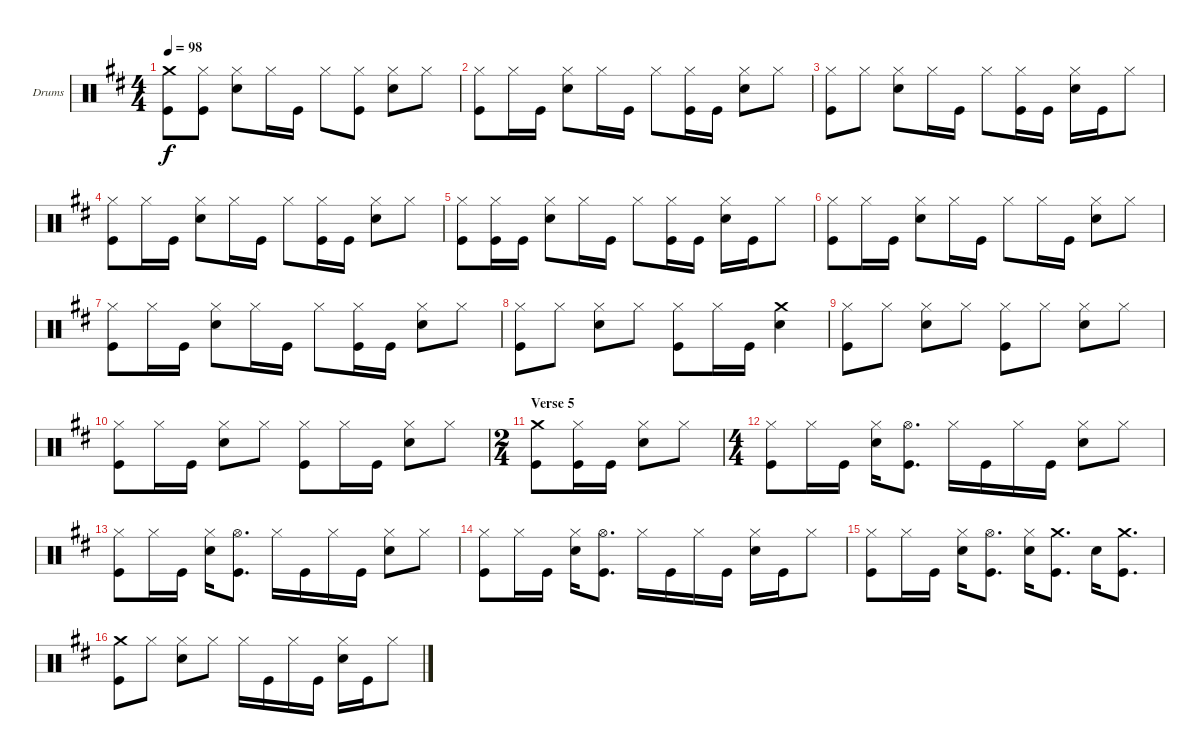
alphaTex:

\bracketExtendMode groupsimilarinstruments
\firstSystemTrackNameOrientation horizontal
\otherSystemsTrackNameOrientation horizontal
\track ("Drumkit" "Drums") {instrument percussion}
\staff {score}
\articulation defaults
\ts (4 4)
\tempo 98
\clef neutral
\ks d
("Crash medium (hit)" "Kick (hit)").8{dy f} ("Hi-Hat (closed)" "Kick (hit)").8 ("Hi-Hat (closed)" "Snare (hit) 2").8 "Hi-Hat (closed)".16 "Kick (hit)".16 "Hi-Hat (closed)".8 ("Hi-Hat (closed)" "Kick (hit)").8 ("Hi-Hat (closed)" "Snare (hit) 2").8 "Hi-Hat (closed)".8 |
("Hi-Hat (closed)" "Kick (hit)").8 "Hi-Hat (closed)".16 "Kick (hit)".16 ("Hi-Hat (closed)" "Snare (hit) 2").8 "Hi-Hat (closed)".16 "Kick (hit)".16 "Hi-Hat (closed)".8 ("Hi-Hat (closed)" "Kick (hit)").16 "Kick (hit)".16 ("Hi-Hat (closed)" "Snare (hit) 2").8 "Hi-Hat (closed)".8 |
("Hi-Hat (closed)" "Kick (hit)").8 "Hi-Hat (closed)".8 ("Hi-Hat (closed)" "Snare (hit) 2").8 "Hi-Hat (closed)".16 "Kick (hit)".16 "Hi-Hat (closed)".8 ("Hi-Hat (closed)" "Kick (hit)").16 "Kick (hit)".16 ("Hi-Hat (closed)" "Snare (hit) 2").16 "Kick (hit)".16 "Hi-Hat (closed)".8 |
("Hi-Hat (closed)" "Kick (hit)").8 "Hi-Hat (closed)".16 "Kick (hit)".16 ("Hi-Hat (closed)" "Snare (hit) 2").8 "Hi-Hat (closed)".16 "Kick (hit)".16 "Hi-Hat (closed)".8 ("Hi-Hat (closed)" "Kick (hit)").16 "Kick (hit)".16 ("Hi-Hat (closed)" "Snare (hit) 2").8 "Hi-Hat (closed)".8 |
("Hi-Hat (closed)" "Kick (hit)").8 ("Hi-Hat (closed)" "Kick (hit)").16 "Kick (hit)".16 ("Hi-Hat (closed)" "Snare (hit) 2").8 "Hi-Hat (closed)".16 "Kick (hit)".16 "Hi-Hat (closed)".8 ("Hi-Hat (closed)" "Kick (hit)").16 "Kick (hit)".16 ("Hi-Hat (closed)" "Snare (hit) 2").16 "Kick (hit)".16 "Hi-Hat (closed)".8 |
("Hi-Hat (closed)" "Kick (hit)").8 "Hi-Hat (closed)".16 "Kick (hit)".16 ("Hi-Hat (closed)" "Snare (hit) 2").8 "Hi-Hat (closed)".16 "Kick (hit)".16 "Hi-Hat (closed)".8 "Hi-Hat (closed)".16 "Kick (hit)".16 ("Hi-Hat (closed)" "Snare (hit) 2").8 "Hi-Hat (closed)".8 |
("Hi-Hat (closed)" "Kick (hit)").8 "Hi-Hat (closed)".16 "Kick (hit)".16 ("Hi-Hat (closed)" "Snare (hit) 2").8 "Hi-Hat (closed)".16 "Kick (hit)".16 "Hi-Hat (closed)".8 ("Hi-Hat (closed)" "Kick (hit)").16 "Kick (hit)".16 ("Hi-Hat (closed)" "Snare (hit) 2").8 "Hi-Hat (closed)".8 |
("Hi-Hat (closed)" "Kick (hit)").8 "Hi-Hat (closed)".8 ("Hi-Hat (closed)" "Snare (hit) 2").8 "Hi-Hat (closed)".8 ("Hi-Hat (closed)" "Kick (hit)").8 "Hi-Hat (closed)".16 "Kick (hit)".16 ("Crash medium (hit)" "Snare (hit) 2").4 |
("Hi-Hat (closed)" "Kick (hit)").8 "Hi-Hat (closed)".8 ("Hi-Hat (closed)" "Snare (hit) 2").8 "Hi-Hat (closed)".8 ("Hi-Hat (closed)" "Kick (hit)").8 "Hi-Hat (closed)".8 ("Hi-Hat (closed)" "Snare (hit) 2").8 "Hi-Hat (closed)".8 |
("Hi-Hat (closed)" "Kick (hit)").8 "Hi-Hat (closed)".16 "Kick (hit)".16 ("Hi-Hat (closed)" "Snare (hit) 2").8 "Hi-Hat (closed)".8 ("Hi-Hat (closed)" "Kick (hit)").8 "Hi-Hat (closed)".16 "Kick (hit)".16 ("Hi-Hat (closed)" "Snare (hit) 2").8 "Hi-Hat (closed)".8 |
\ts (2 4)
\section ("" "Verse 5")
("Crash medium (hit)" "Kick (hit)").8 ("Hi-Hat (closed)" "Kick (hit)").16 "Kick (hit)".16 ("Hi-Hat (closed)" "Snare (hit) 2").8 "Hi-Hat (closed)".8 |
\ts (4 4)
("Hi-Hat (closed)" "Kick (hit)").8 "Hi-Hat (closed)".16 "Kick (hit)".16 ("Hi-Hat (closed)" "Snare (hit) 2").16 ("Hi-Hat (open)" "Kick (hit)").8{d} "Hi-Hat (closed)".16 "Kick (hit)".16 "Hi-Hat (closed)".16 "Kick (hit)".16 ("Hi-Hat (closed)" "Snare (hit) 2").8 "Hi-Hat (closed)".8 |
("Hi-Hat (closed)" "Kick (hit)").8 "Hi-Hat (closed)".16 "Kick (hit)".16 ("Hi-Hat (closed)" "Snare (hit) 2").16 ("Hi-Hat (open)" "Kick (hit)").8{d} "Hi-Hat (closed)".16 "Kick (hit)".16 "Hi-Hat (closed)".16 "Kick (hit)".16 ("Hi-Hat (closed)" "Snare (hit) 2").8 "Hi-Hat (closed)".8 |
("Hi-Hat (closed)" "Kick (hit)").8 "Hi-Hat (closed)".16 "Kick (hit)".16 ("Hi-Hat (closed)" "Snare (hit) 2").16 ("Hi-Hat (open)" "Kick (hit)").8{d} "Hi-Hat (closed)".16 "Kick (hit)".16 "Hi-Hat (closed)".16 "Kick (hit)".16 ("Hi-Hat (closed)" "Snare (hit) 2").16 "Kick (hit)".16 "Hi-Hat (closed)".8 |
("Hi-Hat (closed)" "Kick (hit)").8 "Hi-Hat (closed)".16 "Kick (hit)".16 ("Hi-Hat (closed)" "Snare (hit) 2").16 ("Hi-Hat (open)" "Kick (hit)").8{d} ("Hi-Hat (closed)" "Snare (hit) 2").16 ("Crash medium (hit)" "Kick (hit)").8{d} "Snare (hit) 2".16 ("Crash medium (hit)" "Kick (hit)").8{d} |
("Crash medium (hit)" "Kick (hit)").8 "Hi-Hat (closed)".8 ("Hi-Hat (closed)" "Snare (hit) 2").8 "Hi-Hat (closed)".8 "Hi-Hat (closed)".16 "Kick (hit)".16 "Hi-Hat (closed)".16 "Kick (hit)".16 ("Hi-Hat (closed)" "Snare (hit) 2").16 "Kick (hit)".16 "Hi-Hat (closed)".8
